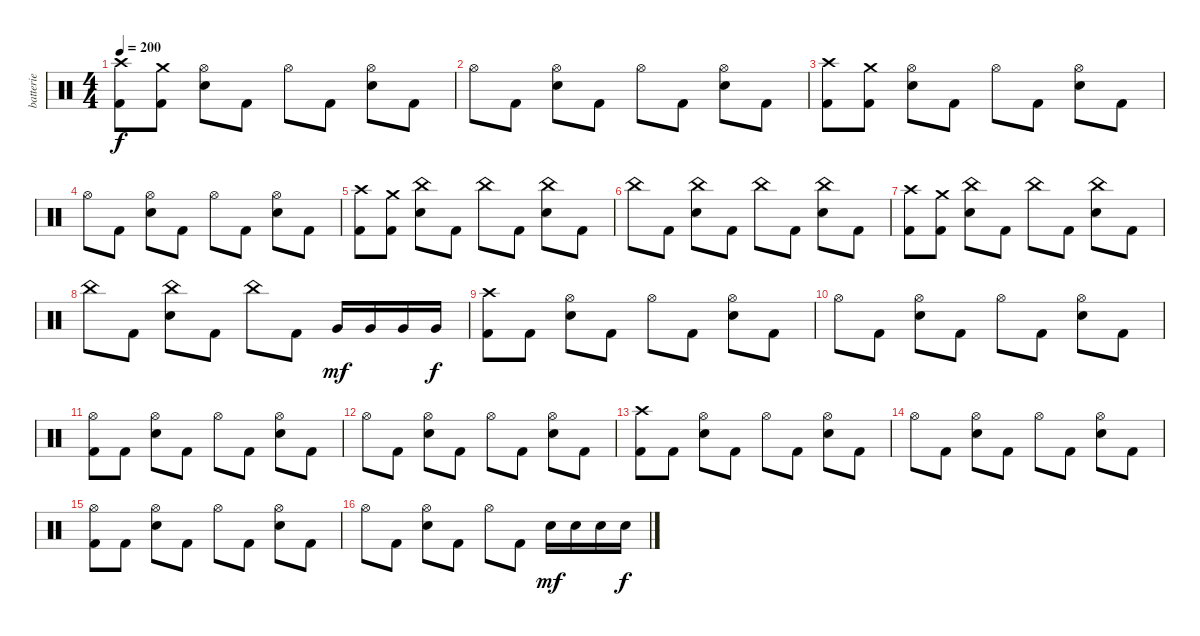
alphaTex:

\track ("batterie" "batterie") {instrument percussion}
\staff {score}
\articulation defaults
\ts (4 4)
\tempo 200
\clef neutral
\ks c
("Kick (hit) 2" "Crash high (hit)").8{dy f} ("Kick (hit) 2" "Crash medium (hit)").8 ("Electric Snare (hit)" "Hi-Hat (open)").8 "Kick (hit) 2".8 "Hi-Hat (open)".8 "Kick (hit) 2".8 ("Electric Snare (hit)" "Hi-Hat (open)").8 "Kick (hit) 2".8 |
"Hi-Hat (open)".8 "Kick (hit) 2".8 ("Electric Snare (hit)" "Hi-Hat (open)").8 "Kick (hit) 2".8 "Hi-Hat (open)".8 "Kick (hit) 2".8 ("Electric Snare (hit)" "Hi-Hat (open)").8 "Kick (hit) 2".8 |
("Kick (hit) 2" "Crash high (hit)").8 ("Kick (hit) 2" "Crash medium (hit)").8 ("Electric Snare (hit)" "Hi-Hat (open)").8 "Kick (hit) 2".8 "Hi-Hat (open)".8 "Kick (hit) 2".8 ("Electric Snare (hit)" "Hi-Hat (open)").8 "Kick (hit) 2".8 |
"Hi-Hat (open)".8 "Kick (hit) 2".8 ("Electric Snare (hit)" "Hi-Hat (open)").8 "Kick (hit) 2".8 "Hi-Hat (open)".8 "Kick (hit) 2".8 ("Electric Snare (hit)" "Hi-Hat (open)").8 "Kick (hit) 2".8 |
("Kick (hit) 2" "Crash high (hit)").8 ("Kick (hit) 2" "Crash medium (hit)").8 ("Electric Snare (hit)" "China (hit)").8 "Kick (hit) 2".8 "China (hit)".8 "Kick (hit) 2".8 ("Electric Snare (hit)" "China (hit)").8 "Kick (hit) 2".8 |
"China (hit)".8 "Kick (hit) 2".8 ("Electric Snare (hit)" "China (hit)").8 "Kick (hit) 2".8 "China (hit)".8 "Kick (hit) 2".8 ("Electric Snare (hit)" "China (hit)").8 "Kick (hit) 2".8 |
("Kick (hit) 2" "Crash high (hit)").8 ("Kick (hit) 2" "Crash medium (hit)").8 ("Electric Snare (hit)" "China (hit)").8 "Kick (hit) 2".8 "China (hit)".8 "Kick (hit) 2".8 ("Electric Snare (hit)" "China (hit)").8 "Kick (hit) 2".8 |
"China (hit)".8 "Kick (hit) 2".8 ("Electric Snare (hit)" "China (hit)").8 "Kick (hit) 2".8 "China (hit)".8 "Kick (hit) 2".8 "Very Low Tom (hit)".16{dy mf} "Very Low Tom (hit)".16 "Very Low Tom (hit)".16 "Very Low Tom (hit)".16{dy f} |
("Kick (hit) 2" "Crash high (hit)").8 "Kick (hit) 2".8 ("Electric Snare (hit)" "Hi-Hat (open)").8 "Kick (hit) 2".8 "Hi-Hat (open)".8 "Kick (hit) 2".8 ("Electric Snare (hit)" "Hi-Hat (open)").8 "Kick (hit) 2".8 |
"Hi-Hat (open)".8 "Kick (hit) 2".8 ("Electric Snare (hit)" "Hi-Hat (open)").8 "Kick (hit) 2".8 "Hi-Hat (open)".8 "Kick (hit) 2".8 ("Electric Snare (hit)" "Hi-Hat (open)").8 "Kick (hit) 2".8 |
("Kick (hit) 2" "Hi-Hat (open)").8 "Kick (hit) 2".8 ("Electric Snare (hit)" "Hi-Hat (open)").8 "Kick (hit) 2".8 "Hi-Hat (open)".8 "Kick (hit) 2".8 ("Electric Snare (hit)" "Hi-Hat (open)").8 "Kick (hit) 2".8 |
"Hi-Hat (open)".8 "Kick (hit) 2".8 ("Electric Snare (hit)" "Hi-Hat (open)").8 "Kick (hit) 2".8 "Hi-Hat (open)".8 "Kick (hit) 2".8 ("Electric Snare (hit)" "Hi-Hat (open)").8 "Kick (hit) 2".8 |
("Kick (hit) 2" "Crash high (hit)").8 "Kick (hit) 2".8 ("Electric Snare (hit)" "Hi-Hat (open)").8 "Kick (hit) 2".8 "Hi-Hat (open)".8 "Kick (hit) 2".8 ("Electric Snare (hit)" "Hi-Hat (open)").8 "Kick (hit) 2".8 |
"Hi-Hat (open)".8 "Kick (hit) 2".8 ("Electric Snare (hit)" "Hi-Hat (open)").8 "Kick (hit) 2".8 "Hi-Hat (open)".8 "Kick (hit) 2".8 ("Electric Snare (hit)" "Hi-Hat (open)").8 "Kick (hit) 2".8 |
("Kick (hit) 2" "Hi-Hat (open)").8 "Kick (hit) 2".8 ("Electric Snare (hit)" "Hi-Hat (open)").8 "Kick (hit) 2".8 "Hi-Hat (open)".8 "Kick (hit) 2".8 ("Electric Snare (hit)" "Hi-Hat (open)").8 "Kick (hit) 2".8 |
"Hi-Hat (open)".8 "Kick (hit) 2".8 ("Electric Snare (hit)" "Hi-Hat (open)").8 "Kick (hit) 2".8 "Hi-Hat (open)".8 "Kick (hit) 2".8 "Electric Snare (hit)".16{dy mf} "Electric Snare (hit)".16 "Electric Snare (hit)".16 "Electric Snare (hit)".16{dy f}
